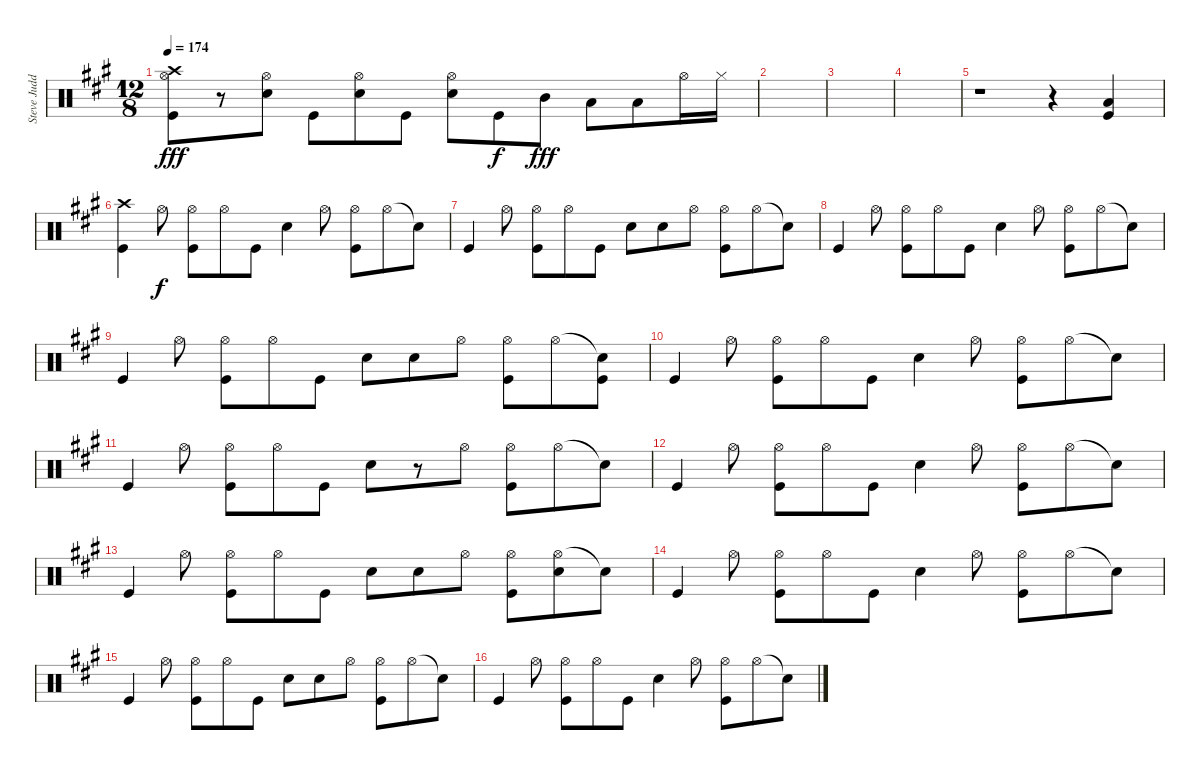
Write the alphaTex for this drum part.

\track ("Steve Judd (Drums)" "Steve Judd") {instrument percussion}
\staff {score}
\articulation defaults
\ts (12 8)
\tempo 174
\clef neutral
\ks a
("Crash high (hit)" "Hi-Hat (open)" "Kick (hit)").8{dy fff} r.8 ("Hi-Hat (open)" "Snare (hit) 2").8 "Kick (hit)".8 ("Hi-Hat (open)" "Snare (hit) 2").8 "Kick (hit)".8 ("Hi-Hat (open)" "Snare (hit) 2").8 "Kick (hit)".8{dy f} "Mid Tom (hit)".8{dy fff} "Low Tom (hit)".8 "Low Floor Tom (hit)".8 "Hi-Hat (open)".16 "Hi-Hat (closed)".16 |
|
|
|
r.1 r.4 ("Low Floor Tom (hit)" "Kick (hit)").4 |
("Crash high (hit)" "Kick (hit)").4 "Hi-Hat (open)".8{dy f} ("Hi-Hat (open)" "Kick (hit)").8 "Hi-Hat (open)".8 "Kick (hit)".8 "Snare (hit) 2".4 "Hi-Hat (open)".8 ("Hi-Hat (open)" "Kick (hit)").8 "Hi-Hat (open)".8 "Snare (hit)"{t}.8 |
"Kick (hit)".4 "Hi-Hat (open)".8 ("Hi-Hat (open)" "Kick (hit)").8 "Hi-Hat (open)".8 "Kick (hit)".8 "Snare (hit) 2".8 "Snare (hit) 2".8 "Hi-Hat (open)".8 ("Hi-Hat (open)" "Kick (hit)").8 "Hi-Hat (open)".8 "Snare (hit)"{t}.8 |
"Kick (hit)".4 "Hi-Hat (open)".8 ("Hi-Hat (open)" "Kick (hit)").8 "Hi-Hat (open)".8 "Kick (hit)".8 "Snare (hit) 2".4 "Hi-Hat (open)".8 ("Hi-Hat (open)" "Kick (hit)").8 "Hi-Hat (open)".8 "Snare (hit)"{t}.8 |
"Kick (hit)".4 "Hi-Hat (open)".8 ("Hi-Hat (open)" "Kick (hit)").8 "Hi-Hat (open)".8 "Kick (hit)".8 "Snare (hit) 2".8 "Snare (hit) 2".8 "Hi-Hat (open)".8 ("Hi-Hat (open)" "Kick (hit)").8 "Hi-Hat (open)".8 ("Snare (hit)"{t} "Kick (hit)").8 |
"Kick (hit)".4 "Hi-Hat (open)".8 ("Hi-Hat (open)" "Kick (hit)").8 "Hi-Hat (open)".8 "Kick (hit)".8 "Snare (hit) 2".4 "Hi-Hat (open)".8 ("Hi-Hat (open)" "Kick (hit)").8 "Hi-Hat (open)".8 "Snare (hit)"{t}.8 |
"Kick (hit)".4 "Hi-Hat (open)".8 ("Hi-Hat (open)" "Kick (hit)").8 "Hi-Hat (open)".8 "Kick (hit)".8 "Snare (hit) 2".8 r.8 "Hi-Hat (open)".8 ("Hi-Hat (open)" "Kick (hit)").8 "Hi-Hat (open)".8 "Snare (hit)"{t}.8 |
"Kick (hit)".4 "Hi-Hat (open)".8 ("Hi-Hat (open)" "Kick (hit)").8 "Hi-Hat (open)".8 "Kick (hit)".8 "Snare (hit) 2".4 "Hi-Hat (open)".8 ("Hi-Hat (open)" "Kick (hit)").8 "Hi-Hat (open)".8 "Snare (hit)"{t}.8 |
"Kick (hit)".4 "Hi-Hat (open)".8 ("Hi-Hat (open)" "Kick (hit)").8 "Hi-Hat (open)".8 "Kick (hit)".8 "Snare (hit) 2".8 "Snare (hit) 2".8 "Hi-Hat (open)".8 ("Hi-Hat (open)" "Kick (hit)").8 ("Hi-Hat (open)" "Snare (hit) 2").8 "Snare (hit)"{t}.8 |
"Kick (hit)".4 "Hi-Hat (open)".8 ("Hi-Hat (open)" "Kick (hit)").8 "Hi-Hat (open)".8 "Kick (hit)".8 "Snare (hit) 2".4 "Hi-Hat (open)".8 ("Hi-Hat (open)" "Kick (hit)").8 "Hi-Hat (open)".8 "Snare (hit)"{t}.8 |
"Kick (hit)".4 "Hi-Hat (open)".8 ("Hi-Hat (open)" "Kick (hit)").8 "Hi-Hat (open)".8 "Kick (hit)".8 "Snare (hit) 2".8 "Snare (hit) 2".8 "Hi-Hat (open)".8 ("Hi-Hat (open)" "Kick (hit)").8 "Hi-Hat (open)".8 "Snare (hit)"{t}.8 |
"Kick (hit)".4 "Hi-Hat (open)".8 ("Hi-Hat (open)" "Kick (hit)").8 "Hi-Hat (open)".8 "Kick (hit)".8 "Snare (hit) 2".4 "Hi-Hat (open)".8 ("Hi-Hat (open)" "Kick (hit)").8 "Hi-Hat (open)".8 "Snare (hit)"{t}.8
